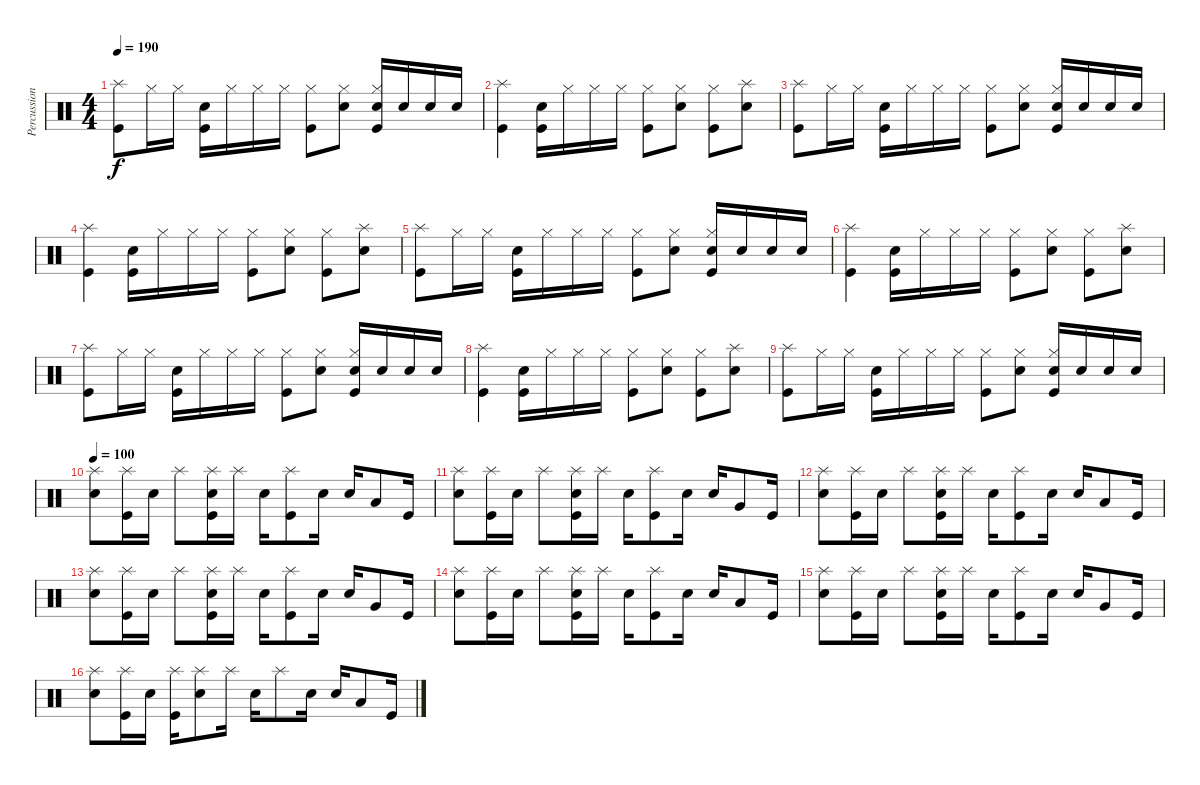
\track ("Percussions" "Percussion") {instrument percussion}
\staff {score}
\articulation defaults
\ts (4 4)
\tempo 190
\clef neutral
\ks c
("Splash (hit)" "Kick (hit)").8{dy f} "Hi-Hat (closed)".16 "Hi-Hat (closed)".16 ("Snare (hit) 2" "Kick (hit)").16 "Hi-Hat (closed)".16 "Hi-Hat (closed)".16 "Hi-Hat (closed)".16 ("Hi-Hat (closed)" "Kick (hit)").8 ("Hi-Hat (closed)" "Snare (hit) 2").8 ("Hi-Hat (closed)" "Snare (hit) 2" "Kick (hit)").16 "Snare (hit) 2".16 "Snare (hit) 2".16 "Snare (hit) 2".16 |
("Splash (hit)" "Kick (hit)").4 ("Snare (hit) 2" "Kick (hit)").16 "Hi-Hat (closed)".16 "Hi-Hat (closed)".16 "Hi-Hat (closed)".16 ("Hi-Hat (closed)" "Kick (hit)").8 ("Hi-Hat (closed)" "Snare (hit) 2").8 ("Hi-Hat (closed)" "Kick (hit)").8 ("Splash (hit)" "Snare (hit) 2").8 |
("Splash (hit)" "Kick (hit)").8 "Hi-Hat (closed)".16 "Hi-Hat (closed)".16 ("Snare (hit) 2" "Kick (hit)").16 "Hi-Hat (closed)".16 "Hi-Hat (closed)".16 "Hi-Hat (closed)".16 ("Hi-Hat (closed)" "Kick (hit)").8 ("Hi-Hat (closed)" "Snare (hit) 2").8 ("Hi-Hat (closed)" "Snare (hit) 2" "Kick (hit)").16 "Snare (hit) 2".16 "Snare (hit) 2".16 "Snare (hit) 2".16 |
("Splash (hit)" "Kick (hit)").4 ("Snare (hit) 2" "Kick (hit)").16 "Hi-Hat (closed)".16 "Hi-Hat (closed)".16 "Hi-Hat (closed)".16 ("Hi-Hat (closed)" "Kick (hit)").8 ("Hi-Hat (closed)" "Snare (hit) 2").8 ("Hi-Hat (closed)" "Kick (hit)").8 ("Splash (hit)" "Snare (hit) 2").8 |
("Splash (hit)" "Kick (hit)").8 "Hi-Hat (closed)".16 "Hi-Hat (closed)".16 ("Snare (hit) 2" "Kick (hit)").16 "Hi-Hat (closed)".16 "Hi-Hat (closed)".16 "Hi-Hat (closed)".16 ("Hi-Hat (closed)" "Kick (hit)").8 ("Hi-Hat (closed)" "Snare (hit) 2").8 ("Hi-Hat (closed)" "Snare (hit) 2" "Kick (hit)").16 "Snare (hit) 2".16 "Snare (hit) 2".16 "Snare (hit) 2".16 |
("Splash (hit)" "Kick (hit)").4 ("Snare (hit) 2" "Kick (hit)").16 "Hi-Hat (closed)".16 "Hi-Hat (closed)".16 "Hi-Hat (closed)".16 ("Hi-Hat (closed)" "Kick (hit)").8 ("Hi-Hat (closed)" "Snare (hit) 2").8 ("Hi-Hat (closed)" "Kick (hit)").8 ("Splash (hit)" "Snare (hit) 2").8 |
("Splash (hit)" "Kick (hit)").8 "Hi-Hat (closed)".16 "Hi-Hat (closed)".16 ("Snare (hit) 2" "Kick (hit)").16 "Hi-Hat (closed)".16 "Hi-Hat (closed)".16 "Hi-Hat (closed)".16 ("Hi-Hat (closed)" "Kick (hit)").8 ("Hi-Hat (closed)" "Snare (hit) 2").8 ("Hi-Hat (closed)" "Snare (hit) 2" "Kick (hit)").16 "Snare (hit) 2".16 "Snare (hit) 2".16 "Snare (hit) 2".16 |
("Splash (hit)" "Kick (hit)").4 ("Snare (hit) 2" "Kick (hit)").16 "Hi-Hat (closed)".16 "Hi-Hat (closed)".16 "Hi-Hat (closed)".16 ("Hi-Hat (closed)" "Kick (hit)").8 ("Hi-Hat (closed)" "Snare (hit) 2").8 ("Hi-Hat (closed)" "Kick (hit)").8 ("Splash (hit)" "Snare (hit) 2").8 |
("Splash (hit)" "Kick (hit)").8 "Hi-Hat (closed)".16 "Hi-Hat (closed)".16 ("Snare (hit) 2" "Kick (hit)").16 "Hi-Hat (closed)".16 "Hi-Hat (closed)".16 "Hi-Hat (closed)".16 ("Hi-Hat (closed)" "Kick (hit)").8 ("Hi-Hat (closed)" "Snare (hit) 2").8 ("Hi-Hat (closed)" "Snare (hit) 2" "Kick (hit)").16 "Snare (hit) 2".16 "Snare (hit) 2".16 "Snare (hit) 2".16 |
\tempo 100
("Splash (hit)" "Snare (hit) 2").8 ("Splash (hit)" "Kick (hit)").16 "Snare (hit) 2".16 "Splash (hit)".8 ("Splash (hit)" "Snare (hit) 2" "Kick (hit)").16 "Splash (hit)".16 "Snare (hit) 2".16 ("Splash (hit)" "Kick (hit)").8 "Snare (hit) 2".16 "Snare (hit) 2".16 "Low Tom (hit)".8 "Kick (hit)".16 |
("Splash (hit)" "Snare (hit) 2").8 ("Splash (hit)" "Kick (hit)").16 "Snare (hit) 2".16 "Splash (hit)".8 ("Splash (hit)" "Snare (hit) 2" "Kick (hit)").16 "Splash (hit)".16 "Snare (hit) 2".16 ("Splash (hit)" "Kick (hit)").8 "Snare (hit) 2".16 "Snare (hit) 2".16 "Very Low Tom (hit)".8 "Kick (hit)".16 |
("Splash (hit)" "Snare (hit) 2").8 ("Splash (hit)" "Kick (hit)").16 "Snare (hit) 2".16 "Splash (hit)".8 ("Splash (hit)" "Snare (hit) 2" "Kick (hit)").16 "Splash (hit)".16 "Snare (hit) 2".16 ("Splash (hit)" "Kick (hit)").8 "Snare (hit) 2".16 "Snare (hit) 2".16 "Low Tom (hit)".8 "Kick (hit)".16 |
("Splash (hit)" "Snare (hit) 2").8 ("Splash (hit)" "Kick (hit)").16 "Snare (hit) 2".16 "Splash (hit)".8 ("Splash (hit)" "Snare (hit) 2" "Kick (hit)").16 "Splash (hit)".16 "Snare (hit) 2".16 ("Splash (hit)" "Kick (hit)").8 "Snare (hit) 2".16 "Snare (hit) 2".16 "Very Low Tom (hit)".8 "Kick (hit)".16 |
("Splash (hit)" "Snare (hit) 2").8 ("Splash (hit)" "Kick (hit)").16 "Snare (hit) 2".16 "Splash (hit)".8 ("Splash (hit)" "Snare (hit) 2" "Kick (hit)").16 "Splash (hit)".16 "Snare (hit) 2".16 ("Splash (hit)" "Kick (hit)").8 "Snare (hit) 2".16 "Snare (hit) 2".16 "Low Tom (hit)".8 "Kick (hit)".16 |
("Splash (hit)" "Snare (hit) 2").8 ("Splash (hit)" "Kick (hit)").16 "Snare (hit) 2".16 "Splash (hit)".8 ("Splash (hit)" "Snare (hit) 2" "Kick (hit)").16 "Splash (hit)".16 "Snare (hit) 2".16 ("Splash (hit)" "Kick (hit)").8 "Snare (hit) 2".16 "Snare (hit) 2".16 "Very Low Tom (hit)".8 "Kick (hit)".16 |
("Splash (hit)" "Snare (hit) 2").8 ("Splash (hit)" "Kick (hit)").16 "Snare (hit) 2".16 ("Splash (hit)" "Kick (hit)").16 ("Splash (hit)" "Snare (hit) 2").8 "Splash (hit)".16 "Snare (hit) 2".16 "Splash (hit)".8 "Snare (hit) 2".16 "Snare (hit) 2".16 "Low Tom (hit)".8 "Kick (hit)".16
